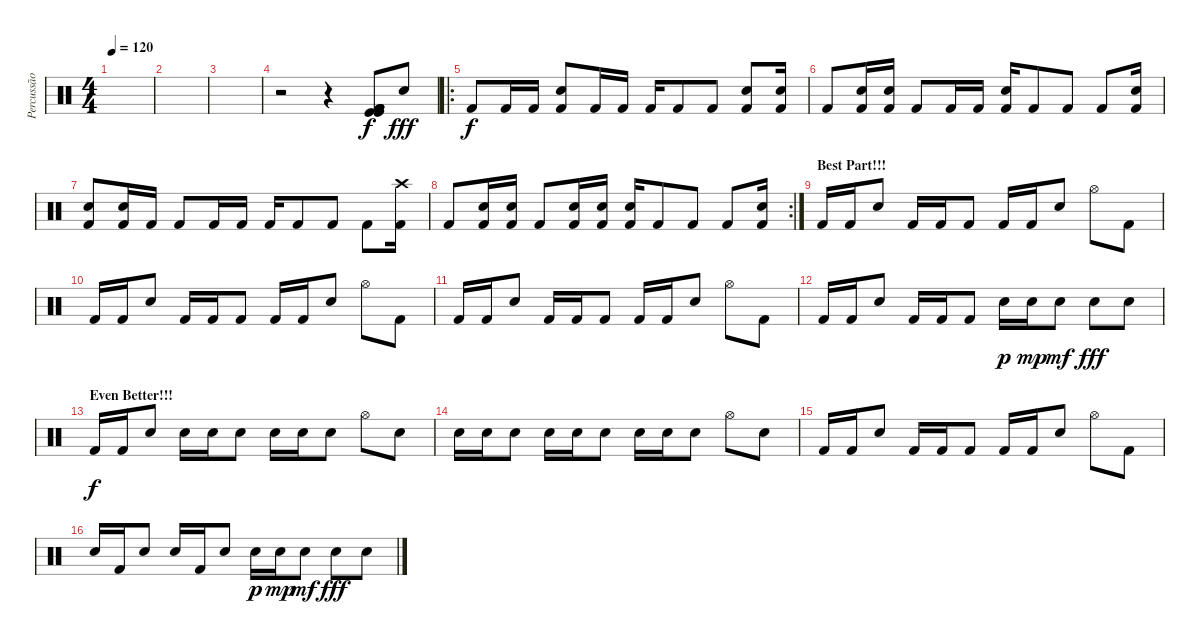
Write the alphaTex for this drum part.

\track ("Percussão" "Percussão") {instrument percussion}
\staff {score}
\articulation defaults
\ts (4 4)
\tempo 120
\clef neutral
\ks c
|
|
|
r.2 r.4 ("Kick (hit) 2" "Kick (hit)" "Kick (hit) 2" "Kick (hit) 2" "Kick (hit)" "Kick (hit) 2").8 "Electric Snare (hit)".8{dy fff} |
\ro "Kick (hit) 2".8{dy f} "Kick (hit) 2".16 "Kick (hit) 2".16
("Snare (hit) 2" "Kick (hit) 2").8 "Kick (hit) 2".16 "Kick (hit) 2".16 "Kick (hit) 2".16 "Kick (hit) 2".8 "Kick (hit) 2".8 ("Snare (hit) 2" "Kick (hit) 2").8 ("Snare (hit) 2" "Kick (hit) 2").16 |
"Kick (hit) 2".8 ("Snare (hit) 2" "Kick (hit) 2").16 ("Snare (hit) 2" "Kick (hit) 2").16 "Kick (hit) 2".8 "Kick (hit) 2".16 "Kick (hit) 2".16 ("Snare (hit) 2" "Kick (hit) 2").16 "Kick (hit) 2".8 "Kick (hit) 2".8 "Kick (hit) 2".8 ("Snare (hit) 2" "Kick (hit) 2").16 |
("Snare (hit) 2" "Kick (hit) 2").8 ("Snare (hit) 2" "Kick (hit) 2").16 "Kick (hit) 2".16 "Kick (hit) 2".8 "Kick (hit) 2".16 "Kick (hit) 2".16 "Kick (hit) 2".16 "Kick (hit) 2".8 "Kick (hit) 2".8 "Kick (hit) 2".8 ("Crash high (hit)" "Kick (hit) 2").16 |
\rc 2 "Kick (hit) 2".8
("Snare (hit) 2" "Kick (hit) 2").16 ("Snare (hit) 2" "Kick (hit) 2").16 "Kick (hit) 2".8 ("Snare (hit) 2" "Kick (hit) 2").16 ("Snare (hit) 2" "Kick (hit) 2").16 ("Snare (hit) 2" "Kick (hit) 2").16 "Kick (hit) 2".8 "Kick (hit) 2".8 "Kick (hit) 2".8 ("Snare (hit) 2" "Kick (hit) 2").16 |
\section ("" "Best Part!!!")
"Kick (hit) 2".16 "Kick (hit) 2".16 "Snare (hit) 2".8 "Kick (hit) 2".16 "Kick (hit) 2".16 "Kick (hit) 2".8 "Kick (hit) 2".16 "Kick (hit) 2".16 "Snare (hit) 2".8 "Hi-Hat (open)".8 "Kick (hit) 2".8 |
"Kick (hit) 2".16 "Kick (hit) 2".16 "Snare (hit) 2".8 "Kick (hit) 2".16 "Kick (hit) 2".16 "Kick (hit) 2".8 "Kick (hit) 2".16 "Kick (hit) 2".16 "Snare (hit) 2".8 "Hi-Hat (open)".8 "Kick (hit) 2".8 |
"Kick (hit) 2".16 "Kick (hit) 2".16 "Snare (hit) 2".8 "Kick (hit) 2".16 "Kick (hit) 2".16 "Kick (hit) 2".8 "Kick (hit) 2".16 "Kick (hit) 2".16 "Snare (hit) 2".8 "Hi-Hat (open)".8 "Kick (hit) 2".8 |
"Kick (hit) 2".16 "Kick (hit) 2".16 "Snare (hit) 2".8 "Kick (hit) 2".16 "Kick (hit) 2".16 "Kick (hit) 2".8 "Electric Snare (hit)".16{dy p} "Electric Snare (hit)".16{dy mp} "Electric Snare (hit)".8{dy mf} "Electric Snare (hit)".8{dy fff} "Electric Snare (hit)".8 |
\section ("" "Even Better!!!")
"Kick (hit) 2".16{dy f} "Kick (hit) 2".16 "Snare (hit) 2".8 "Electric Snare (hit)".16 "Electric Snare (hit)".16 "Electric Snare (hit)".8 "Electric Snare (hit)".16 "Electric Snare (hit)".16 "Snare (hit) 2".8 "Hi-Hat (open)".8 "Electric Snare (hit)".8 |
"Electric Snare (hit)".16 "Electric Snare (hit)".16 "Snare (hit) 2".8 "Electric Snare (hit)".16 "Electric Snare (hit)".16 "Electric Snare (hit)".8 "Electric Snare (hit)".16 "Electric Snare (hit)".16 "Snare (hit) 2".8 "Hi-Hat (open)".8 "Electric Snare (hit)".8 |
"Kick (hit) 2".16 "Kick (hit) 2".16 "Snare (hit) 2".8 "Kick (hit) 2".16 "Kick (hit) 2".16 "Kick (hit) 2".8 "Kick (hit) 2".16 "Kick (hit) 2".16 "Snare (hit) 2".8 "Hi-Hat (open)".8 "Kick (hit) 2".8 |
"Electric Snare (hit)".16 "Kick (hit) 2".16 "Snare (hit) 2".8 "Electric Snare (hit)".16 "Kick (hit) 2".16 "Electric Snare (hit)".8 "Electric Snare (hit)".16{dy p} "Electric Snare (hit)".16{dy mp} "Electric Snare (hit)".8{dy mf} "Electric Snare (hit)".8{dy fff} "Electric Snare (hit)".8
